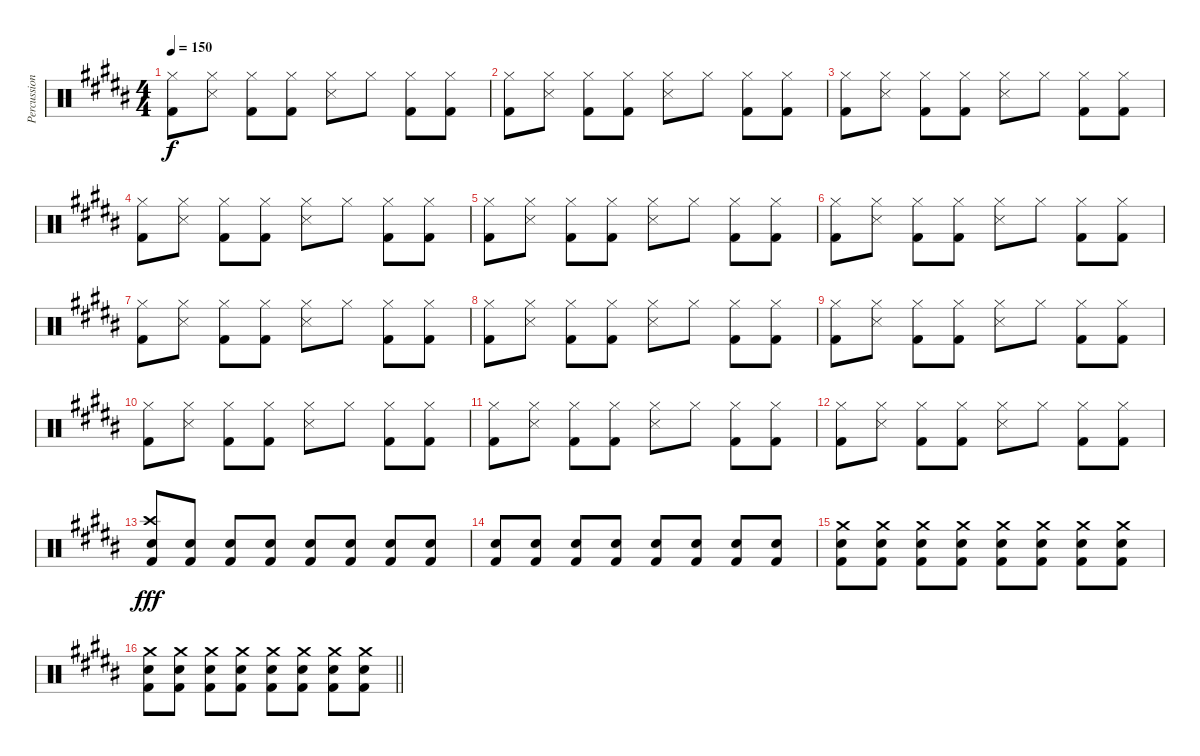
\track ("Percussion" "Percussion") {instrument percussion}
\staff {score}
\articulation defaults
\ts (4 4)
\tempo 150
\clef neutral
\ks b
("Hi-Hat (closed)" "Kick (hit) 2").8{dy f} ("Hi-Hat (closed)" "Snare (side stick) 3").8 ("Hi-Hat (closed)" "Kick (hit) 2").8 ("Hi-Hat (closed)" "Kick (hit) 2").8 ("Hi-Hat (closed)" "Snare (side stick) 3").8 "Hi-Hat (closed)".8 ("Hi-Hat (closed)" "Kick (hit) 2").8 ("Hi-Hat (closed)" "Kick (hit) 2").8 |
("Hi-Hat (closed)" "Kick (hit) 2").8 ("Hi-Hat (closed)" "Snare (side stick) 3").8 ("Hi-Hat (closed)" "Kick (hit) 2").8 ("Hi-Hat (closed)" "Kick (hit) 2").8 ("Hi-Hat (closed)" "Snare (side stick) 3").8 "Hi-Hat (closed)".8 ("Hi-Hat (closed)" "Kick (hit) 2").8 ("Hi-Hat (closed)" "Kick (hit) 2").8 |
("Hi-Hat (closed)" "Kick (hit) 2").8 ("Hi-Hat (closed)" "Snare (side stick) 3").8 ("Hi-Hat (closed)" "Kick (hit) 2").8 ("Hi-Hat (closed)" "Kick (hit) 2").8 ("Hi-Hat (closed)" "Snare (side stick) 3").8 "Hi-Hat (closed)".8 ("Hi-Hat (closed)" "Kick (hit) 2").8 ("Hi-Hat (closed)" "Kick (hit) 2").8 |
("Hi-Hat (closed)" "Kick (hit) 2").8 ("Hi-Hat (closed)" "Snare (side stick) 3").8 ("Hi-Hat (closed)" "Kick (hit) 2").8 ("Hi-Hat (closed)" "Kick (hit) 2").8 ("Hi-Hat (closed)" "Snare (side stick) 3").8 "Hi-Hat (closed)".8 ("Hi-Hat (closed)" "Kick (hit) 2").8 ("Hi-Hat (closed)" "Kick (hit) 2").8 |
("Hi-Hat (closed)" "Kick (hit) 2").8 ("Hi-Hat (closed)" "Snare (side stick) 3").8 ("Hi-Hat (closed)" "Kick (hit) 2").8 ("Hi-Hat (closed)" "Kick (hit) 2").8 ("Hi-Hat (closed)" "Snare (side stick) 3").8 "Hi-Hat (closed)".8 ("Hi-Hat (closed)" "Kick (hit) 2").8 ("Hi-Hat (closed)" "Kick (hit) 2").8 |
("Hi-Hat (closed)" "Kick (hit) 2").8 ("Hi-Hat (closed)" "Snare (side stick) 3").8 ("Hi-Hat (closed)" "Kick (hit) 2").8 ("Hi-Hat (closed)" "Kick (hit) 2").8 ("Hi-Hat (closed)" "Snare (side stick) 3").8 "Hi-Hat (closed)".8 ("Hi-Hat (closed)" "Kick (hit) 2").8 ("Hi-Hat (closed)" "Kick (hit) 2").8 |
("Hi-Hat (closed)" "Kick (hit) 2").8 ("Hi-Hat (closed)" "Snare (side stick) 3").8 ("Hi-Hat (closed)" "Kick (hit) 2").8 ("Hi-Hat (closed)" "Kick (hit) 2").8 ("Hi-Hat (closed)" "Snare (side stick) 3").8 "Hi-Hat (closed)".8 ("Hi-Hat (closed)" "Kick (hit) 2").8 ("Hi-Hat (closed)" "Kick (hit) 2").8 |
("Hi-Hat (closed)" "Kick (hit) 2").8 ("Hi-Hat (closed)" "Snare (side stick) 3").8 ("Hi-Hat (closed)" "Kick (hit) 2").8 ("Hi-Hat (closed)" "Kick (hit) 2").8 ("Hi-Hat (closed)" "Snare (side stick) 3").8 "Hi-Hat (closed)".8 ("Hi-Hat (closed)" "Kick (hit) 2").8 ("Hi-Hat (closed)" "Kick (hit) 2").8 |
("Hi-Hat (closed)" "Kick (hit) 2").8 ("Hi-Hat (closed)" "Snare (side stick) 3").8 ("Hi-Hat (closed)" "Kick (hit) 2").8 ("Hi-Hat (closed)" "Kick (hit) 2").8 ("Hi-Hat (closed)" "Snare (side stick) 3").8 "Hi-Hat (closed)".8 ("Hi-Hat (closed)" "Kick (hit) 2").8 ("Hi-Hat (closed)" "Kick (hit) 2").8 |
("Hi-Hat (closed)" "Kick (hit) 2").8 ("Hi-Hat (closed)" "Snare (side stick) 3").8 ("Hi-Hat (closed)" "Kick (hit) 2").8 ("Hi-Hat (closed)" "Kick (hit) 2").8 ("Hi-Hat (closed)" "Snare (side stick) 3").8 "Hi-Hat (closed)".8 ("Hi-Hat (closed)" "Kick (hit) 2").8 ("Hi-Hat (closed)" "Kick (hit) 2").8 |
("Hi-Hat (closed)" "Kick (hit) 2").8 ("Hi-Hat (closed)" "Snare (side stick) 3").8 ("Hi-Hat (closed)" "Kick (hit) 2").8 ("Hi-Hat (closed)" "Kick (hit) 2").8 ("Hi-Hat (closed)" "Snare (side stick) 3").8 "Hi-Hat (closed)".8 ("Hi-Hat (closed)" "Kick (hit) 2").8 ("Hi-Hat (closed)" "Kick (hit) 2").8 |
("Hi-Hat (closed)" "Kick (hit) 2").8 ("Hi-Hat (closed)" "Snare (side stick) 3").8 ("Hi-Hat (closed)" "Kick (hit) 2").8 ("Hi-Hat (closed)" "Kick (hit) 2").8 ("Hi-Hat (closed)" "Snare (side stick) 3").8 "Hi-Hat (closed)".8 ("Hi-Hat (closed)" "Kick (hit) 2").8 ("Hi-Hat (closed)" "Kick (hit) 2").8 |
("Crash high (hit)" "Electric Snare (hit)" "Kick (hit) 2").8{dy fff} ("Electric Snare (hit)" "Kick (hit) 2").8 ("Electric Snare (hit)" "Kick (hit) 2").8 ("Electric Snare (hit)" "Kick (hit) 2").8 ("Electric Snare (hit)" "Kick (hit) 2").8 ("Electric Snare (hit)" "Kick (hit) 2").8 ("Electric Snare (hit)" "Kick (hit) 2").8 ("Electric Snare (hit)" "Kick (hit) 2").8 |
("Electric Snare (hit)" "Kick (hit) 2").8 ("Electric Snare (hit)" "Kick (hit) 2").8 ("Electric Snare (hit)" "Kick (hit) 2").8 ("Electric Snare (hit)" "Kick (hit) 2").8 ("Electric Snare (hit)" "Kick (hit) 2").8 ("Electric Snare (hit)" "Kick (hit) 2").8 ("Electric Snare (hit)" "Kick (hit) 2").8 ("Electric Snare (hit)" "Kick (hit) 2").8 |
("Crash medium (hit)" "Electric Snare (hit)" "Kick (hit) 2").8 ("Crash medium (hit)" "Electric Snare (hit)" "Kick (hit) 2").8 ("Crash medium (hit)" "Electric Snare (hit)" "Kick (hit) 2").8 ("Crash medium (hit)" "Electric Snare (hit)" "Kick (hit) 2").8 ("Crash medium (hit)" "Electric Snare (hit)" "Kick (hit) 2").8 ("Crash medium (hit)" "Electric Snare (hit)" "Kick (hit) 2").8 ("Crash medium (hit)" "Electric Snare (hit)" "Kick (hit) 2").8 ("Crash medium (hit)" "Electric Snare (hit)" "Kick (hit) 2").8 |
\barLineRight lightlight
("Crash medium (hit)" "Electric Snare (hit)" "Kick (hit) 2").8 ("Crash medium (hit)" "Electric Snare (hit)" "Kick (hit) 2").8 ("Crash medium (hit)" "Electric Snare (hit)" "Kick (hit) 2").8 ("Crash medium (hit)" "Electric Snare (hit)" "Kick (hit) 2").8 ("Crash medium (hit)" "Electric Snare (hit)" "Kick (hit) 2").8 ("Crash medium (hit)" "Electric Snare (hit)" "Kick (hit) 2").8 ("Crash medium (hit)" "Electric Snare (hit)" "Kick (hit) 2").8 ("Crash medium (hit)" "Electric Snare (hit)" "Kick (hit) 2").8
